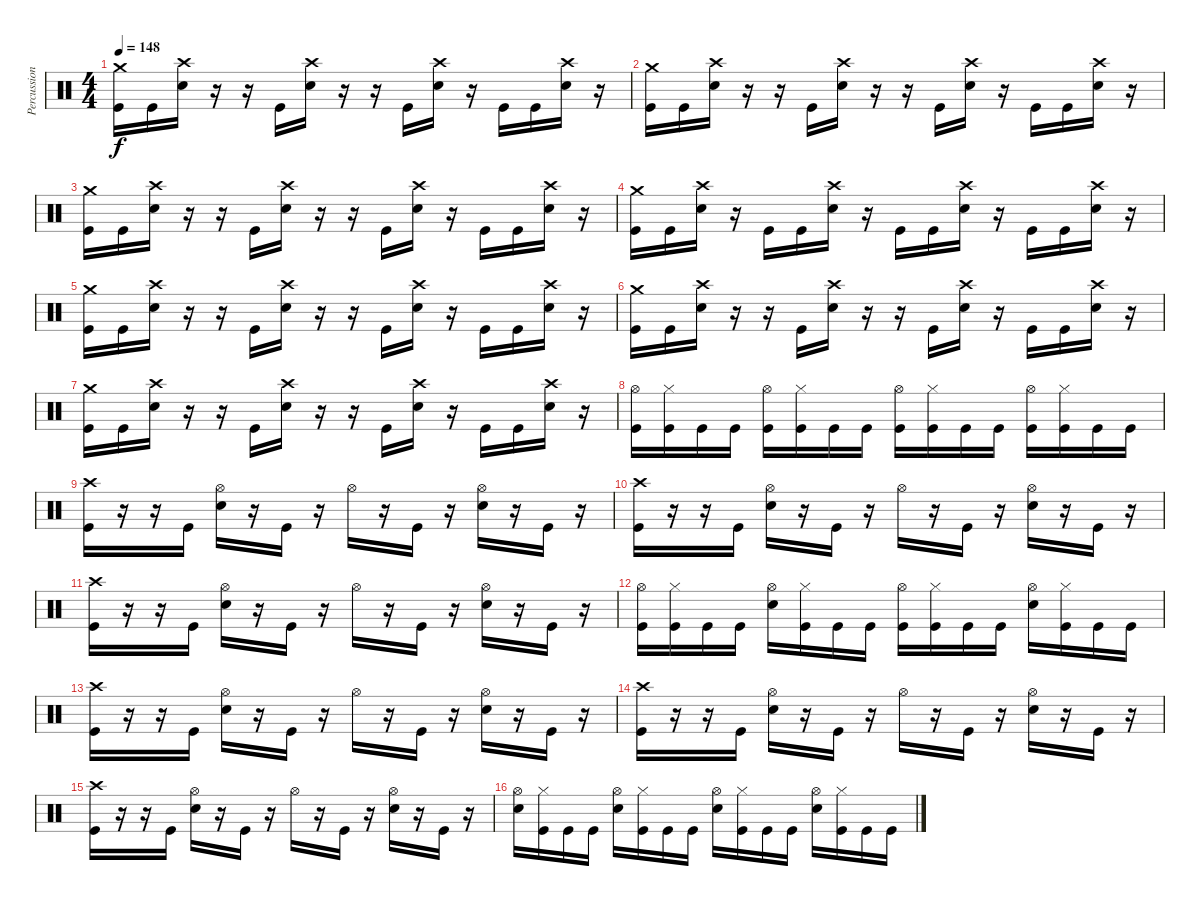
\track ("Percussion" "Percussion") {instrument percussion}
\staff {score}
\articulation defaults
\ts (4 4)
\tempo 148
\clef neutral
\ks c
("Crash medium (hit)" "Kick (hit)").16{dy f} "Kick (hit)".16 ("Crash high (hit)" "Snare (hit) 2").16 r.16 r.16 "Kick (hit)".16 ("Crash high (hit)" "Snare (hit) 2").16 r.16 r.16 "Kick (hit)".16 ("Crash high (hit)" "Snare (hit) 2").16 r.16 "Kick (hit)".16 "Kick (hit)".16 ("Crash high (hit)" "Snare (hit) 2").16 r.16 |
("Crash medium (hit)" "Kick (hit)").16 "Kick (hit)".16 ("Crash high (hit)" "Snare (hit) 2").16 r.16 r.16 "Kick (hit)".16 ("Crash high (hit)" "Snare (hit) 2").16 r.16 r.16 "Kick (hit)".16 ("Crash high (hit)" "Snare (hit) 2").16 r.16 "Kick (hit)".16 "Kick (hit)".16 ("Crash high (hit)" "Snare (hit) 2").16 r.16 |
("Crash medium (hit)" "Kick (hit)").16 "Kick (hit)".16 ("Crash high (hit)" "Snare (hit) 2").16 r.16 r.16 "Kick (hit)".16 ("Crash high (hit)" "Snare (hit) 2").16 r.16 r.16 "Kick (hit)".16 ("Crash high (hit)" "Snare (hit) 2").16 r.16 "Kick (hit)".16 "Kick (hit)".16 ("Crash high (hit)" "Snare (hit) 2").16 r.16 |
("Crash medium (hit)" "Kick (hit)").16 "Kick (hit)".16 ("Crash high (hit)" "Snare (hit) 2").16 r.16 "Kick (hit)".16 "Kick (hit)".16 ("Crash high (hit)" "Snare (hit) 2").16 r.16 "Kick (hit)".16 "Kick (hit)".16 ("Crash high (hit)" "Snare (hit) 2").16 r.16 "Kick (hit)".16 "Kick (hit)".16 ("Crash high (hit)" "Snare (hit) 2").16 r.16 |
("Crash medium (hit)" "Kick (hit)").16 "Kick (hit)".16 ("Crash high (hit)" "Snare (hit) 2").16 r.16 r.16 "Kick (hit)".16 ("Crash high (hit)" "Snare (hit) 2").16 r.16 r.16 "Kick (hit)".16 ("Crash high (hit)" "Snare (hit) 2").16 r.16 "Kick (hit)".16 "Kick (hit)".16 ("Crash high (hit)" "Snare (hit) 2").16 r.16 |
("Crash medium (hit)" "Kick (hit)").16 "Kick (hit)".16 ("Crash high (hit)" "Snare (hit) 2").16 r.16 r.16 "Kick (hit)".16 ("Crash high (hit)" "Snare (hit) 2").16 r.16 r.16 "Kick (hit)".16 ("Crash high (hit)" "Snare (hit) 2").16 r.16 "Kick (hit)".16 "Kick (hit)".16 ("Crash high (hit)" "Snare (hit) 2").16 r.16 |
("Crash medium (hit)" "Kick (hit)").16 "Kick (hit)".16 ("Crash high (hit)" "Snare (hit) 2").16 r.16 r.16 "Kick (hit)".16 ("Crash high (hit)" "Snare (hit) 2").16 r.16 r.16 "Kick (hit)".16 ("Crash high (hit)" "Snare (hit) 2").16 r.16 "Kick (hit)".16 "Kick (hit)".16 ("Crash high (hit)" "Snare (hit) 2").16 r.16 |
("Hi-Hat (open)" "Kick (hit)").16 ("Hi-Hat (closed)" "Kick (hit)").16 "Kick (hit)".16 "Kick (hit)".16 ("Hi-Hat (open)" "Kick (hit)").16 ("Hi-Hat (closed)" "Kick (hit)").16 "Kick (hit)".16 "Kick (hit)".16 ("Hi-Hat (open)" "Kick (hit)").16 ("Hi-Hat (closed)" "Kick (hit)").16 "Kick (hit)".16 "Kick (hit)".16 ("Hi-Hat (open)" "Kick (hit)").16 ("Hi-Hat (closed)" "Kick (hit)").16 "Kick (hit)".16 "Kick (hit)".16 |
("Crash high (hit)" "Kick (hit)").16 r.16 r.16 "Kick (hit)".16 ("Hi-Hat (open)" "Snare (hit) 2").16 r.16 "Kick (hit)".16 r.16 "Hi-Hat (open)".16 r.16 "Kick (hit)".16 r.16 ("Hi-Hat (open)" "Snare (hit) 2").16 r.16 "Kick (hit)".16 r.16 |
("Crash high (hit)" "Kick (hit)").16 r.16 r.16 "Kick (hit)".16 ("Hi-Hat (open)" "Snare (hit) 2").16 r.16 "Kick (hit)".16 r.16 "Hi-Hat (open)".16 r.16 "Kick (hit)".16 r.16 ("Hi-Hat (open)" "Snare (hit) 2").16 r.16 "Kick (hit)".16 r.16 |
("Crash high (hit)" "Kick (hit)").16 r.16 r.16 "Kick (hit)".16 ("Hi-Hat (open)" "Snare (hit) 2").16 r.16 "Kick (hit)".16 r.16 "Hi-Hat (open)".16 r.16 "Kick (hit)".16 r.16 ("Hi-Hat (open)" "Snare (hit) 2").16 r.16 "Kick (hit)".16 r.16 |
("Hi-Hat (open)" "Kick (hit)").16 ("Hi-Hat (closed)" "Kick (hit)").16 "Kick (hit)".16 "Kick (hit)".16 ("Hi-Hat (open)" "Snare (hit) 2").16 ("Hi-Hat (closed)" "Kick (hit)").16 "Kick (hit)".16 "Kick (hit)".16 ("Hi-Hat (open)" "Kick (hit)").16 ("Hi-Hat (closed)" "Kick (hit)").16 "Kick (hit)".16 "Kick (hit)".16 ("Hi-Hat (open)" "Snare (hit) 2").16 ("Hi-Hat (closed)" "Kick (hit)").16 "Kick (hit)".16 "Kick (hit)".16 |
("Crash high (hit)" "Kick (hit)").16 r.16 r.16 "Kick (hit)".16 ("Hi-Hat (open)" "Snare (hit) 2").16 r.16 "Kick (hit)".16 r.16 "Hi-Hat (open)".16 r.16 "Kick (hit)".16 r.16 ("Hi-Hat (open)" "Snare (hit) 2").16 r.16 "Kick (hit)".16 r.16 |
("Crash high (hit)" "Kick (hit)").16 r.16 r.16 "Kick (hit)".16 ("Hi-Hat (open)" "Snare (hit) 2").16 r.16 "Kick (hit)".16 r.16 "Hi-Hat (open)".16 r.16 "Kick (hit)".16 r.16 ("Hi-Hat (open)" "Snare (hit) 2").16 r.16 "Kick (hit)".16 r.16 |
("Crash high (hit)" "Kick (hit)").16 r.16 r.16 "Kick (hit)".16 ("Hi-Hat (open)" "Snare (hit) 2").16 r.16 "Kick (hit)".16 r.16 "Hi-Hat (open)".16 r.16 "Kick (hit)".16 r.16 ("Hi-Hat (open)" "Snare (hit) 2").16 r.16 "Kick (hit)".16 r.16 |
("Hi-Hat (open)" "Snare (hit) 2").16 ("Hi-Hat (closed)" "Kick (hit)").16 "Kick (hit)".16 "Kick (hit)".16 ("Hi-Hat (open)" "Snare (hit) 2").16 ("Hi-Hat (closed)" "Kick (hit)").16 "Kick (hit)".16 "Kick (hit)".16 ("Hi-Hat (open)" "Snare (hit) 2").16 ("Hi-Hat (closed)" "Kick (hit)").16 "Kick (hit)".16 "Kick (hit)".16 ("Hi-Hat (open)" "Snare (hit) 2").16 ("Hi-Hat (closed)" "Kick (hit)").16 "Kick (hit)".16 "Kick (hit)".16
